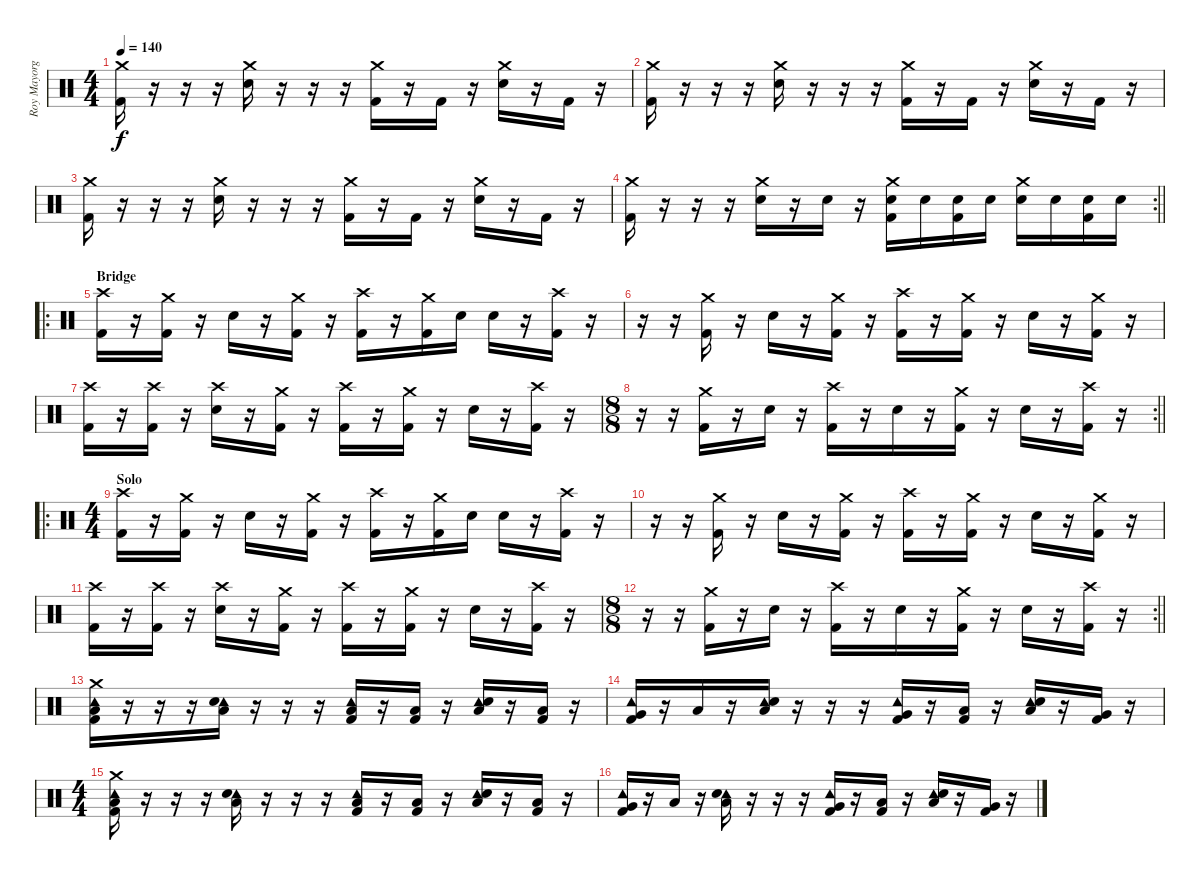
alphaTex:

\track ("Roy Mayorga" "Roy Mayorg") {instrument percussion}
\staff {score}
\articulation defaults
\ts (4 4)
\tempo 140
\clef neutral
\ks c
("Crash medium (hit)" "Kick (hit) 2").16{dy f} r.16 r.16 r.16 ("Crash medium (hit)" "Snare (hit) 2").16 r.16 r.16 r.16 ("Crash medium (hit)" "Kick (hit) 2").16 r.16 "Kick (hit) 2".16 r.16 ("Crash medium (hit)" "Snare (hit) 2").16 r.16 "Kick (hit) 2".16 r.16 |
("Crash medium (hit)" "Kick (hit) 2").16 r.16 r.16 r.16 ("Crash medium (hit)" "Snare (hit) 2").16 r.16 r.16 r.16 ("Crash medium (hit)" "Kick (hit) 2").16 r.16 "Kick (hit) 2".16 r.16 ("Crash medium (hit)" "Snare (hit) 2").16 r.16 "Kick (hit) 2".16 r.16 |
("Crash medium (hit)" "Kick (hit) 2").16 r.16 r.16 r.16 ("Crash medium (hit)" "Snare (hit) 2").16 r.16 r.16 r.16 ("Crash medium (hit)" "Kick (hit) 2").16 r.16 "Kick (hit) 2".16 r.16 ("Crash medium (hit)" "Snare (hit) 2").16 r.16 "Kick (hit) 2".16 r.16 |
\rc 2
\barLineRight lightlight
("Crash medium (hit)" "Kick (hit) 2").16 r.16 r.16 r.16 ("Crash medium (hit)" "Snare (hit) 2").16 r.16 "Snare (hit) 2".16 r.16 ("Crash medium (hit)" "Snare (hit) 2" "Kick (hit) 2").16 "Snare (hit) 2".16 ("Snare (hit) 2" "Kick (hit) 2").16 "Snare (hit) 2".16 ("Crash medium (hit)" "Snare (hit) 2").16 "Snare (hit) 2".16 ("Snare (hit) 2" "Kick (hit) 2").16 "Snare (hit) 2".16 |
\ro
\section ("" "Bridge")
("Crash high (hit)" "Kick (hit) 2").16 r.16 ("Crash medium (hit)" "Kick (hit) 2").16 r.16 "Snare (hit) 2".16 r.16 ("Crash medium (hit)" "Kick (hit) 2").16 r.16 ("Crash high (hit)" "Kick (hit) 2").16 r.16 ("Crash medium (hit)" "Kick (hit) 2").16 "Snare (hit) 2".16 "Snare (hit) 2".16 r.16 ("Crash high (hit)" "Kick (hit) 2").16 r.16 |
r.16 r.16 ("Crash medium (hit)" "Kick (hit) 2").16 r.16 "Snare (hit) 2".16 r.16 ("Crash medium (hit)" "Kick (hit) 2").16 r.16 ("Crash high (hit)" "Kick (hit) 2").16 r.16 ("Crash medium (hit)" "Kick (hit) 2").16 r.16 "Snare (hit) 2".16 r.16 ("Crash medium (hit)" "Kick (hit) 2").16 r.16 |
("Crash high (hit)" "Kick (hit) 2").16 r.16 ("Crash high (hit)" "Kick (hit) 2").16 r.16 ("Crash high (hit)" "Snare (hit) 2").16 r.16 ("Crash medium (hit)" "Kick (hit) 2").16 r.16 ("Crash high (hit)" "Kick (hit) 2").16 r.16 ("Crash medium (hit)" "Kick (hit) 2").16 r.16 "Snare (hit) 2".16 r.16 ("Crash high (hit)" "Kick (hit) 2").16 r.16 |
\rc 2
\ts (8 8)
\barLineRight lightlight
r.16 r.16 ("Crash medium (hit)" "Kick (hit) 2").16 r.16 "Snare (hit) 2".16 r.16 ("Crash high (hit)" "Kick (hit) 2").16 r.16 "Snare (hit) 2".16 r.16 ("Crash medium (hit)" "Kick (hit) 2").16 r.16 "Snare (hit) 2".16 r.16 ("Crash high (hit)" "Kick (hit) 2").16 r.16 |
\ro
\ts (4 4)
\section ("" "Solo")
("Crash high (hit)" "Kick (hit) 2").16 r.16 ("Crash medium (hit)" "Kick (hit) 2").16 r.16 "Snare (hit) 2".16 r.16 ("Crash medium (hit)" "Kick (hit) 2").16 r.16 ("Crash high (hit)" "Kick (hit) 2").16 r.16 ("Crash medium (hit)" "Kick (hit) 2").16 "Snare (hit) 2".16 "Snare (hit) 2".16 r.16 ("Crash high (hit)" "Kick (hit) 2").16 r.16 |
r.16 r.16 ("Crash medium (hit)" "Kick (hit) 2").16 r.16 "Snare (hit) 2".16 r.16 ("Crash medium (hit)" "Kick (hit) 2").16 r.16 ("Crash high (hit)" "Kick (hit) 2").16 r.16 ("Crash medium (hit)" "Kick (hit) 2").16 r.16 "Snare (hit) 2".16 r.16 ("Crash medium (hit)" "Kick (hit) 2").16 r.16 |
("Crash high (hit)" "Kick (hit) 2").16 r.16 ("Crash high (hit)" "Kick (hit) 2").16 r.16 ("Crash high (hit)" "Snare (hit) 2").16 r.16 ("Crash medium (hit)" "Kick (hit) 2").16 r.16 ("Crash high (hit)" "Kick (hit) 2").16 r.16 ("Crash medium (hit)" "Kick (hit) 2").16 r.16 "Snare (hit) 2".16 r.16 ("Crash high (hit)" "Kick (hit) 2").16 r.16 |
\rc 2
\ts (8 8)
\barLineRight lightlight
r.16 r.16 ("Crash medium (hit)" "Kick (hit) 2").16 r.16 "Snare (hit) 2".16 r.16 ("Crash high (hit)" "Kick (hit) 2").16 r.16 "Snare (hit) 2".16 r.16 ("Crash medium (hit)" "Kick (hit) 2").16 r.16 "Snare (hit) 2".16 r.16 ("Crash high (hit)" "Kick (hit) 2").16 r.16 |
("Crash medium (hit)" "Tambourine (hit)" "Low Tom (hit)" "Kick (hit) 2").16 r.16 r.16 r.16 ("Tambourine (hit)" "Low Tom (hit)" "Snare (hit) 2").16 r.16 r.16 r.16 ("Tambourine (hit)" "Low Tom (hit)" "Kick (hit) 2").16 r.16 ("Low Floor Tom (hit)" "Kick (hit) 2").16 r.16 ("Tambourine (hit)" "Low Tom (hit)" "Snare (hit) 2").16 r.16 ("Low Floor Tom (hit)" "Kick (hit) 2").16 r.16 |
("Tambourine (hit)" "Very Low Tom (hit)" "Kick (hit) 2").16 r.16 "Low Tom (hit)".16 r.16 ("Tambourine (hit)" "Low Tom (hit)" "Snare (hit) 2").16 r.16 r.16 r.16 ("Tambourine (hit)" "Very Low Tom (hit)" "Kick (hit) 2").16 r.16 ("Low Tom (hit)" "Kick (hit) 2").16 r.16 ("Tambourine (hit)" "Low Tom (hit)" "Snare (hit) 2").16 r.16 ("Very Low Tom (hit)" "Kick (hit) 2").16 r.16 |
\ts (4 4)
("Crash medium (hit)" "Tambourine (hit)" "Low Tom (hit)" "Kick (hit) 2").16 r.16 r.16 r.16 ("Tambourine (hit)" "Low Tom (hit)" "Snare (hit) 2").16 r.16 r.16 r.16 ("Tambourine (hit)" "Low Tom (hit)" "Kick (hit) 2").16 r.16 ("Low Floor Tom (hit)" "Kick (hit) 2").16 r.16 ("Tambourine (hit)" "Low Tom (hit)" "Snare (hit) 2").16 r.16 ("Low Floor Tom (hit)" "Kick (hit) 2").16 r.16 |
("Tambourine (hit)" "Very Low Tom (hit)" "Kick (hit) 2").16 r.16 "Low Tom (hit)".16 r.16 ("Tambourine (hit)" "Low Tom (hit)" "Snare (hit) 2").16 r.16 r.16 r.16 ("Tambourine (hit)" "Very Low Tom (hit)" "Kick (hit) 2").16 r.16 ("Low Tom (hit)" "Kick (hit) 2").16 r.16 ("Tambourine (hit)" "Low Tom (hit)" "Snare (hit) 2").16 r.16 ("Very Low Tom (hit)" "Kick (hit) 2").16 r.16
